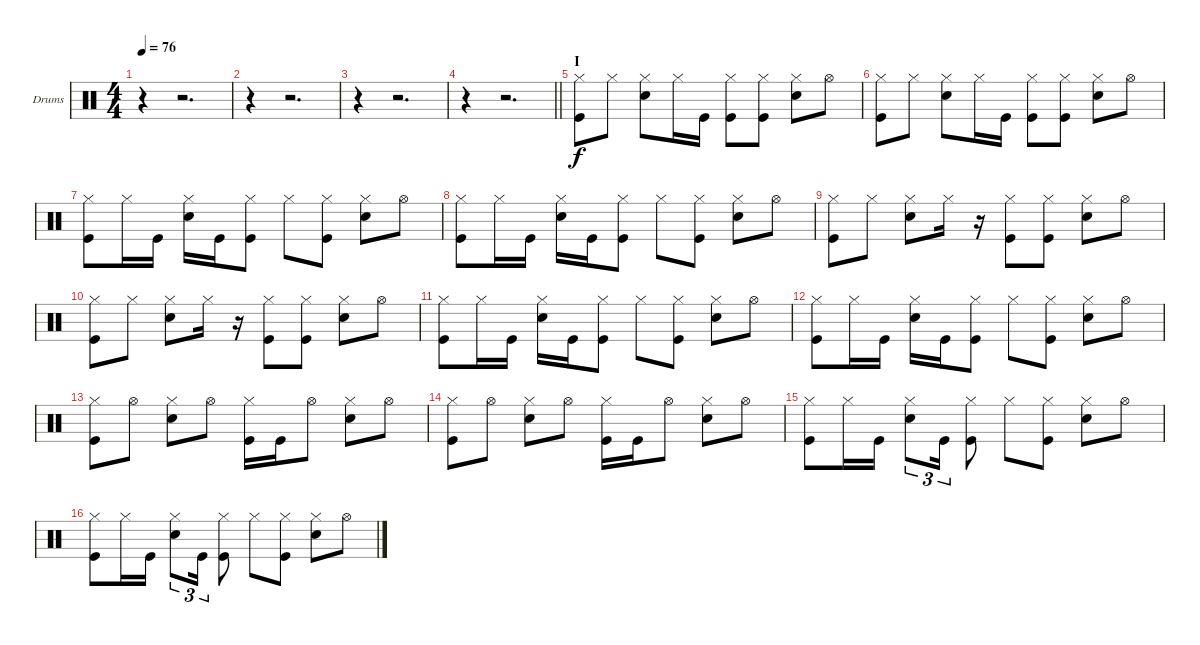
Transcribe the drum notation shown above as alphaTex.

\bracketExtendMode groupsimilarinstruments
\firstSystemTrackNameOrientation horizontal
\otherSystemsTrackNameOrientation horizontal
\track ("Drumkit" "Drums") {instrument percussion}
\staff {score}
\articulation defaults
\ts (4 4)
\beaming (8 2 2 2 2)
\tempo 76
\clef neutral
\ks c
r.4{dy f} r.2{d} |
r.4 r.2{d} |
r.4 r.2{d} |
\barLineRight lightlight
r.4 r.2{d} |
\section ("" "I")
("Hi-Hat (closed)" "Kick (hit)").8 "Hi-Hat (closed)".8 ("Hi-Hat (closed)" "Snare (hit) 2").8 "Hi-Hat (closed)".16 "Kick (hit)".16 ("Hi-Hat (closed)" "Kick (hit)").8 ("Hi-Hat (closed)" "Kick (hit)").8 ("Hi-Hat (closed)" "Snare (hit) 2").8 "Hi-Hat (open)".8 |
("Hi-Hat (closed)" "Kick (hit)").8 "Hi-Hat (closed)".8 ("Hi-Hat (closed)" "Snare (hit) 2").8 "Hi-Hat (closed)".16 "Kick (hit)".16 ("Hi-Hat (closed)" "Kick (hit)").8 ("Hi-Hat (closed)" "Kick (hit)").8 ("Hi-Hat (closed)" "Snare (hit) 2").8 "Hi-Hat (open)".8 |
("Hi-Hat (closed)" "Kick (hit)").8 "Hi-Hat (closed)".16 "Kick (hit)".16 ("Hi-Hat (closed)" "Snare (hit) 2").16 "Kick (hit)".16 ("Kick (hit)" "Hi-Hat (closed)").8 "Hi-Hat (closed)".8 ("Hi-Hat (closed)" "Kick (hit)").8 ("Hi-Hat (closed)" "Snare (hit) 2").8 "Hi-Hat (open)".8 |
("Hi-Hat (closed)" "Kick (hit)").8 "Hi-Hat (closed)".16 "Kick (hit)".16 ("Hi-Hat (closed)" "Snare (hit) 2").16 "Kick (hit)".16 ("Kick (hit)" "Hi-Hat (closed)").8 "Hi-Hat (closed)".8 ("Hi-Hat (closed)" "Kick (hit)").8 ("Hi-Hat (closed)" "Snare (hit) 2").8 "Hi-Hat (open)".8 |
("Hi-Hat (closed)" "Kick (hit)").8 "Hi-Hat (closed)".8 ("Hi-Hat (closed)" "Snare (hit) 2").8 "Hi-Hat (closed)".16 r.16 ("Hi-Hat (closed)" "Kick (hit)").8 ("Hi-Hat (closed)" "Kick (hit)").8 ("Hi-Hat (closed)" "Snare (hit) 2").8 "Hi-Hat (open)".8 |
("Hi-Hat (closed)" "Kick (hit)").8 "Hi-Hat (closed)".8 ("Hi-Hat (closed)" "Snare (hit) 2").8 "Hi-Hat (closed)".16 r.16 ("Hi-Hat (closed)" "Kick (hit)").8 ("Hi-Hat (closed)" "Kick (hit)").8 ("Hi-Hat (closed)" "Snare (hit) 2").8 "Hi-Hat (open)".8 |
("Hi-Hat (closed)" "Kick (hit)").8 "Hi-Hat (closed)".16 "Kick (hit)".16 ("Hi-Hat (closed)" "Snare (hit) 2").16 "Kick (hit)".16 ("Kick (hit)" "Hi-Hat (closed)").8 "Hi-Hat (closed)".8 ("Hi-Hat (closed)" "Kick (hit)").8 ("Hi-Hat (closed)" "Snare (hit) 2").8 "Hi-Hat (open)".8 |
("Hi-Hat (closed)" "Kick (hit)").8 "Hi-Hat (closed)".16 "Kick (hit)".16 ("Hi-Hat (closed)" "Snare (hit) 2").16 "Kick (hit)".16 ("Kick (hit)" "Hi-Hat (closed)").8 "Hi-Hat (closed)".8 ("Hi-Hat (closed)" "Kick (hit)").8 ("Hi-Hat (closed)" "Snare (hit) 2").8 "Hi-Hat (open)".8 |
("Hi-Hat (closed)" "Kick (hit)").8 "Hi-Hat (open)".8 ("Hi-Hat (closed)" "Snare (hit) 2").8 "Hi-Hat (open)".8 ("Hi-Hat (closed)" "Kick (hit)").16 "Kick (hit)".16 "Hi-Hat (open)".8 ("Hi-Hat (closed)" "Snare (hit) 2").8 "Hi-Hat (open)".8 |
("Hi-Hat (closed)" "Kick (hit)").8 "Hi-Hat (open)".8 ("Hi-Hat (closed)" "Snare (hit) 2").8 "Hi-Hat (open)".8 ("Hi-Hat (closed)" "Kick (hit)").16 "Kick (hit)".16 "Hi-Hat (open)".8 ("Hi-Hat (closed)" "Snare (hit) 2").8 "Hi-Hat (open)".8 |
("Hi-Hat (closed)" "Kick (hit)").8 "Hi-Hat (closed)".16 "Kick (hit)".16 ("Hi-Hat (closed)" "Snare (hit) 2").8{tu (3 2)} "Kick (hit)".16{tu (3 2)} ("Kick (hit)" "Hi-Hat (closed)").8 "Hi-Hat (closed)".8 ("Hi-Hat (closed)" "Kick (hit)").8 ("Hi-Hat (closed)" "Snare (hit) 2").8 "Hi-Hat (open)".8 |
("Hi-Hat (closed)" "Kick (hit)").8 "Hi-Hat (closed)".16 "Kick (hit)".16 ("Hi-Hat (closed)" "Snare (hit) 2").8{tu (3 2)} "Kick (hit)".16{tu (3 2)} ("Kick (hit)" "Hi-Hat (closed)").8 "Hi-Hat (closed)".8 ("Hi-Hat (closed)" "Kick (hit)").8 ("Hi-Hat (closed)" "Snare (hit) 2").8 "Hi-Hat (open)".8
